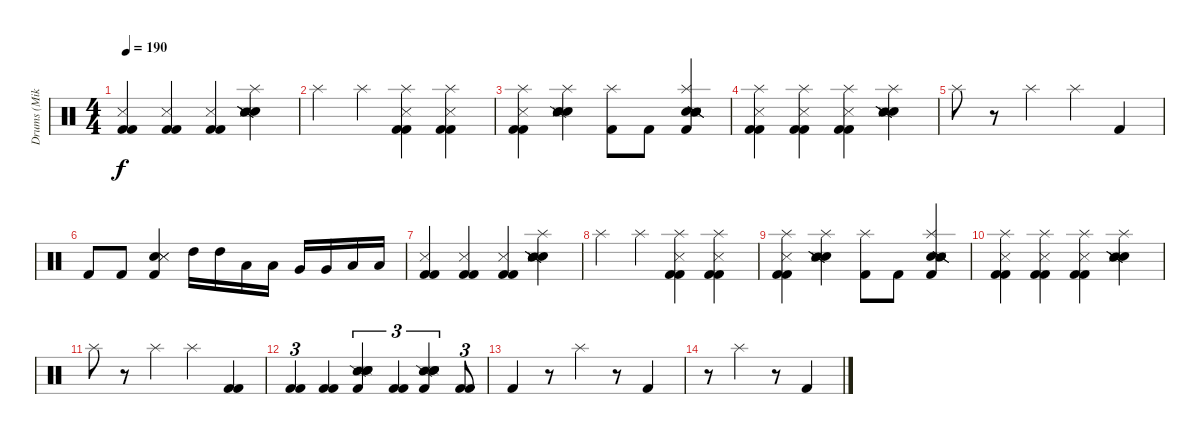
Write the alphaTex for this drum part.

\track ("Drums (Mike Justian)" "Drums (Mik") {instrument percussion}
\staff {score}
\articulation defaults
\ts (4 4)
\tempo 190
\clef neutral
\ks c
("Kick (hit) 2" "Snare (side stick) 3" "Kick (hit) 2").4{dy f} ("Kick (hit) 2" "Snare (side stick) 3" "Kick (hit) 2").4 ("Kick (hit) 2" "Snare (side stick) 3" "Kick (hit) 2").4 ("Splash (hit)" "Electric Snare (hit)" "Snare (side stick) 2" "Snare (side stick) 2" "Snare (side stick) 3" "Snare (side stick) 3").4 |
"Splash (hit)".4 "Splash (hit)".4 ("Splash (hit)" "Kick (hit) 2" "Snare (side stick) 3" "Kick (hit) 2").4 ("Splash (hit)" "Kick (hit) 2" "Snare (side stick) 3" "Kick (hit) 2").4 |
("Splash (hit)" "Kick (hit) 2" "Snare (side stick) 3" "Kick (hit) 2").4 ("Splash (hit)" "Electric Snare (hit)" "Snare (hit)" "Snare (side stick) 2" "Snare (side stick) 3" "Snare (side stick) 3").4 ("Splash (hit)" "Kick (hit) 2").8 "Kick (hit) 2".8 ("Splash (hit)" "Electric Snare (hit)" "Snare (side stick) 2" "Snare (side stick) 2" "Snare (side stick) 3" "Kick (hit) 2").4 |
("Splash (hit)" "Kick (hit) 2" "Snare (side stick) 3" "Kick (hit) 2").4 ("Splash (hit)" "Kick (hit) 2" "Snare (side stick) 3" "Kick (hit) 2").4 ("Splash (hit)" "Kick (hit) 2" "Snare (side stick) 3" "Kick (hit) 2").4 ("Splash (hit)" "Electric Snare (hit)" "Snare (side stick) 2" "Snare (side stick) 2" "Snare (side stick) 3" "Snare (side stick) 3").4 |
"Splash (hit)".8 r.8 "Splash (hit)".4 "Splash (hit)".4 "Kick (hit) 2".4 |
"Kick (hit) 2".8 "Kick (hit) 2".8 ("Electric Snare (hit)" "Kick (hit) 2" "Snare (side stick) 3" "Snare (side stick) 3").4 "High Tom (hit)".16 "High Tom (hit)".16 "Low Tom (hit)".16 "Low Tom (hit)".16 "Very Low Tom (hit)".16 "Very Low Tom (hit)".16 "Low Floor Tom (hit)".16 "Low Floor Tom (hit)".16 |
("Kick (hit) 2" "Snare (side stick) 3" "Kick (hit) 2").4 ("Kick (hit) 2" "Snare (side stick) 3" "Kick (hit) 2").4 ("Kick (hit) 2" "Snare (side stick) 3" "Kick (hit) 2").4 ("Splash (hit)" "Electric Snare (hit)" "Snare (side stick) 2" "Snare (side stick) 2" "Snare (side stick) 3" "Snare (side stick) 3").4 |
"Splash (hit)".4 "Splash (hit)".4 ("Splash (hit)" "Kick (hit) 2" "Snare (side stick) 3" "Kick (hit) 2").4 ("Splash (hit)" "Kick (hit) 2" "Snare (side stick) 3" "Kick (hit) 2").4 |
("Splash (hit)" "Kick (hit) 2" "Snare (side stick) 3" "Kick (hit) 2").4 ("Splash (hit)" "Electric Snare (hit)" "Snare (side stick) 2" "Snare (side stick) 2" "Snare (side stick) 3" "Snare (side stick) 3").4 ("Splash (hit)" "Kick (hit) 2").8 "Kick (hit) 2".8 ("Splash (hit)" "Electric Snare (hit)" "Snare (side stick) 2" "Snare (side stick) 2" "Snare (side stick) 3" "Kick (hit) 2").4 |
("Splash (hit)" "Kick (hit) 2" "Snare (side stick) 3" "Kick (hit) 2").4 ("Splash (hit)" "Kick (hit) 2" "Snare (side stick) 3" "Kick (hit) 2").4 ("Splash (hit)" "Kick (hit) 2" "Snare (side stick) 3" "Kick (hit) 2").4 ("Splash (hit)" "Electric Snare (hit)" "Snare (side stick) 2" "Snare (side stick) 2" "Snare (side stick) 3" "Snare (side stick) 3").4 |
"Splash (hit)".8 r.8 "Splash (hit)".4 "Splash (hit)".4 ("Kick (hit) 2" "Kick (hit) 2").4 |
("Kick (hit) 2" "Kick (hit) 2").4{tu (3 2)} ("Kick (hit) 2" "Kick (hit) 2").4 ("Snare (side stick) 2" "Electric Snare (hit)" "Snare (side stick) 3" "Kick (hit) 2" "Electric Snare (hit)").4{tu (3 2)} ("Kick (hit) 2" "Kick (hit) 2").4{tu (3 2)} ("Snare (side stick) 2" "Electric Snare (hit)" "Snare (side stick) 3" "Kick (hit) 2" "Electric Snare (hit)").4{tu (3 2)} ("Kick (hit) 2" "Kick (hit) 2").8{tu (3 2)} |
"Kick (hit) 2".4 r.8 "Splash (hit)".4 r.8 "Kick (hit) 2".4 |
r.8 "Splash (hit)".4 r.8 "Kick (hit) 2".4
